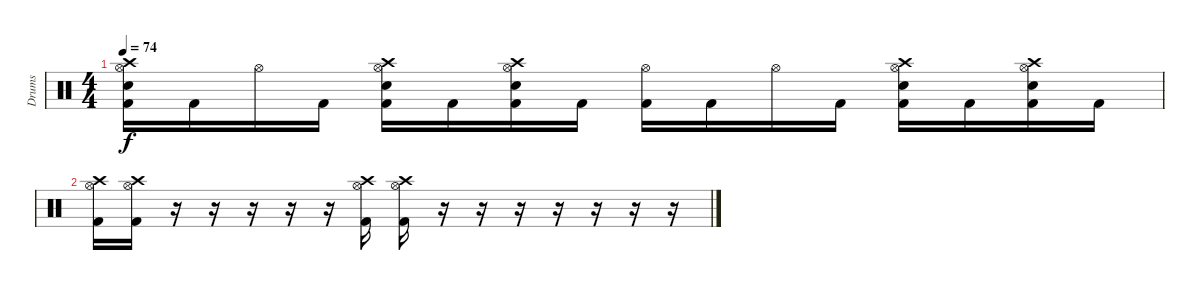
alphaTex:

\track ("Drums" "Drums") {instrument percussion}
\staff {score}
\articulation defaults
\ts (4 4)
\tempo 74
\clef neutral
\ks c
("Hi-Hat (open)" "Crash high (hit)" "Kick (hit) 2" "Snare (hit) 2").16{dy f} "Kick (hit) 2".16 "Hi-Hat (open)".16 "Kick (hit) 2".16 ("Hi-Hat (open)" "Crash high (hit)" "Kick (hit) 2" "Snare (hit) 2").16 "Kick (hit) 2".16 ("Hi-Hat (open)" "Crash high (hit)" "Kick (hit) 2" "Snare (hit) 2").16 "Kick (hit) 2".16 ("Hi-Hat (open)" "Kick (hit) 2").16 "Kick (hit) 2".16 "Hi-Hat (open)".16 "Kick (hit) 2".16 ("Hi-Hat (open)" "Crash high (hit)" "Kick (hit) 2" "Snare (hit) 2").16 "Kick (hit) 2".16 ("Hi-Hat (open)" "Crash high (hit)" "Kick (hit) 2" "Snare (hit) 2").16 "Kick (hit) 2".16 |
("Hi-Hat (open)" "Crash high (hit)" "Kick (hit) 2").16 ("Hi-Hat (open)" "Crash high (hit)" "Kick (hit) 2").16 r.16 r.16 r.16 r.16 r.16 ("Hi-Hat (open)" "Crash high (hit)" "Kick (hit) 2").16 ("Hi-Hat (open)" "Crash high (hit)" "Kick (hit) 2").16 r.16 r.16 r.16 r.16 r.16 r.16 r.16
